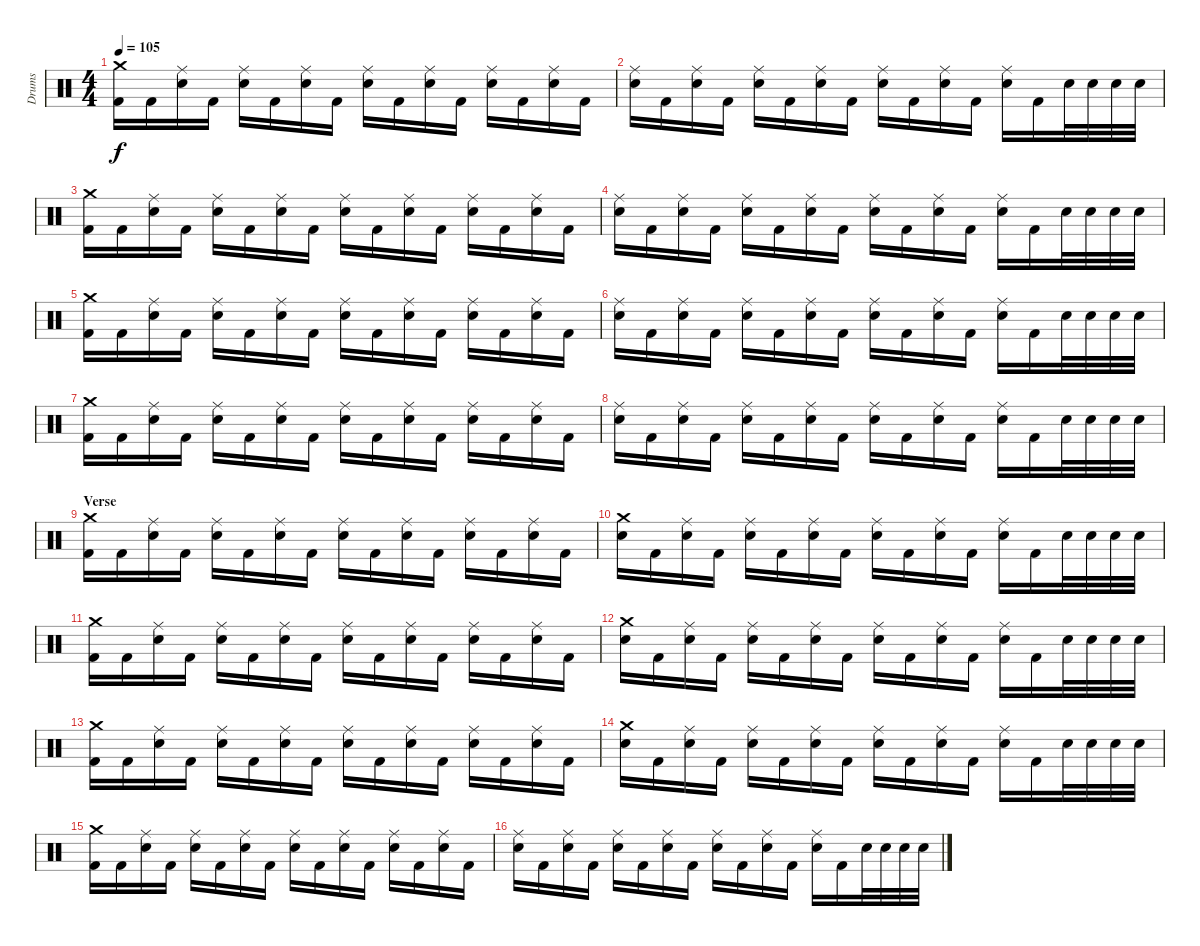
\track ("Drums" "Drums") {instrument percussion}
\staff {score}
\articulation defaults
\ts (4 4)
\tempo 105
\clef neutral
\ks c
("Crash medium (hit)" "Kick (hit) 2").16{dy f} "Kick (hit) 2".16 ("Ride (middle)" "Electric Snare (hit)").16 "Kick (hit) 2".16 ("Ride (middle)" "Electric Snare (hit)").16 "Kick (hit) 2".16 ("Ride (middle)" "Electric Snare (hit)").16 "Kick (hit) 2".16 ("Ride (middle)" "Electric Snare (hit)").16 "Kick (hit) 2".16 ("Ride (middle)" "Electric Snare (hit)").16 "Kick (hit) 2".16 ("Ride (middle)" "Electric Snare (hit)").16 "Kick (hit) 2".16 ("Ride (middle)" "Electric Snare (hit)").16 "Kick (hit) 2".16 |
("Ride (middle)" "Electric Snare (hit)").16 "Kick (hit) 2".16 ("Ride (middle)" "Electric Snare (hit)").16 "Kick (hit) 2".16 ("Ride (middle)" "Electric Snare (hit)").16 "Kick (hit) 2".16 ("Ride (middle)" "Electric Snare (hit)").16 "Kick (hit) 2".16 ("Ride (middle)" "Electric Snare (hit)").16 "Kick (hit) 2".16 ("Ride (middle)" "Electric Snare (hit)").16 "Kick (hit) 2".16 ("Ride (middle)" "Electric Snare (hit)").16 "Kick (hit) 2".16 "Electric Snare (hit)".32 "Electric Snare (hit)".32 "Electric Snare (hit)".32 "Electric Snare (hit)".32 |
("Crash medium (hit)" "Kick (hit) 2").16 "Kick (hit) 2".16 ("Ride (middle)" "Electric Snare (hit)").16 "Kick (hit) 2".16 ("Ride (middle)" "Electric Snare (hit)").16 "Kick (hit) 2".16 ("Ride (middle)" "Electric Snare (hit)").16 "Kick (hit) 2".16 ("Ride (middle)" "Electric Snare (hit)").16 "Kick (hit) 2".16 ("Ride (middle)" "Electric Snare (hit)").16 "Kick (hit) 2".16 ("Ride (middle)" "Electric Snare (hit)").16 "Kick (hit) 2".16 ("Ride (middle)" "Electric Snare (hit)").16 "Kick (hit) 2".16 |
("Ride (middle)" "Electric Snare (hit)").16 "Kick (hit) 2".16 ("Ride (middle)" "Electric Snare (hit)").16 "Kick (hit) 2".16 ("Ride (middle)" "Electric Snare (hit)").16 "Kick (hit) 2".16 ("Ride (middle)" "Electric Snare (hit)").16 "Kick (hit) 2".16 ("Ride (middle)" "Electric Snare (hit)").16 "Kick (hit) 2".16 ("Ride (middle)" "Electric Snare (hit)").16 "Kick (hit) 2".16 ("Ride (middle)" "Electric Snare (hit)").16 "Kick (hit) 2".16 "Electric Snare (hit)".32 "Electric Snare (hit)".32 "Electric Snare (hit)".32 "Electric Snare (hit)".32 |
("Crash medium (hit)" "Kick (hit) 2").16 "Kick (hit) 2".16 ("Ride (middle)" "Electric Snare (hit)").16 "Kick (hit) 2".16 ("Ride (middle)" "Electric Snare (hit)").16 "Kick (hit) 2".16 ("Ride (middle)" "Electric Snare (hit)").16 "Kick (hit) 2".16 ("Ride (middle)" "Electric Snare (hit)").16 "Kick (hit) 2".16 ("Ride (middle)" "Electric Snare (hit)").16 "Kick (hit) 2".16 ("Ride (middle)" "Electric Snare (hit)").16 "Kick (hit) 2".16 ("Ride (middle)" "Electric Snare (hit)").16 "Kick (hit) 2".16 |
("Ride (middle)" "Electric Snare (hit)").16 "Kick (hit) 2".16 ("Ride (middle)" "Electric Snare (hit)").16 "Kick (hit) 2".16 ("Ride (middle)" "Electric Snare (hit)").16 "Kick (hit) 2".16 ("Ride (middle)" "Electric Snare (hit)").16 "Kick (hit) 2".16 ("Ride (middle)" "Electric Snare (hit)").16 "Kick (hit) 2".16 ("Ride (middle)" "Electric Snare (hit)").16 "Kick (hit) 2".16 ("Ride (middle)" "Electric Snare (hit)").16 "Kick (hit) 2".16 "Electric Snare (hit)".32 "Electric Snare (hit)".32 "Electric Snare (hit)".32 "Electric Snare (hit)".32 |
("Crash medium (hit)" "Kick (hit) 2").16 "Kick (hit) 2".16 ("Ride (middle)" "Electric Snare (hit)").16 "Kick (hit) 2".16 ("Ride (middle)" "Electric Snare (hit)").16 "Kick (hit) 2".16 ("Ride (middle)" "Electric Snare (hit)").16 "Kick (hit) 2".16 ("Ride (middle)" "Electric Snare (hit)").16 "Kick (hit) 2".16 ("Ride (middle)" "Electric Snare (hit)").16 "Kick (hit) 2".16 ("Ride (middle)" "Electric Snare (hit)").16 "Kick (hit) 2".16 ("Ride (middle)" "Electric Snare (hit)").16 "Kick (hit) 2".16 |
("Ride (middle)" "Electric Snare (hit)").16 "Kick (hit) 2".16 ("Ride (middle)" "Electric Snare (hit)").16 "Kick (hit) 2".16 ("Ride (middle)" "Electric Snare (hit)").16 "Kick (hit) 2".16 ("Ride (middle)" "Electric Snare (hit)").16 "Kick (hit) 2".16 ("Ride (middle)" "Electric Snare (hit)").16 "Kick (hit) 2".16 ("Ride (middle)" "Electric Snare (hit)").16 "Kick (hit) 2".16 ("Ride (middle)" "Electric Snare (hit)").16 "Kick (hit) 2".16 "Electric Snare (hit)".32 "Electric Snare (hit)".32 "Electric Snare (hit)".32 "Electric Snare (hit)".32 |
\section ("" "Verse")
("Crash medium (hit)" "Kick (hit) 2").16 "Kick (hit) 2".16 ("Ride (middle)" "Electric Snare (hit)").16 "Kick (hit) 2".16 ("Ride (middle)" "Electric Snare (hit)").16 "Kick (hit) 2".16 ("Ride (middle)" "Electric Snare (hit)").16 "Kick (hit) 2".16 ("Ride (middle)" "Electric Snare (hit)").16 "Kick (hit) 2".16 ("Ride (middle)" "Electric Snare (hit)").16 "Kick (hit) 2".16 ("Ride (middle)" "Electric Snare (hit)").16 "Kick (hit) 2".16 ("Ride (middle)" "Electric Snare (hit)").16 "Kick (hit) 2".16 |
("Crash medium (hit)" "Electric Snare (hit)").16 "Kick (hit) 2".16 ("Ride (middle)" "Electric Snare (hit)").16 "Kick (hit) 2".16 ("Ride (middle)" "Electric Snare (hit)").16 "Kick (hit) 2".16 ("Ride (middle)" "Electric Snare (hit)").16 "Kick (hit) 2".16 ("Ride (middle)" "Electric Snare (hit)").16 "Kick (hit) 2".16 ("Ride (middle)" "Electric Snare (hit)").16 "Kick (hit) 2".16 ("Ride (middle)" "Electric Snare (hit)").16 "Kick (hit) 2".16 "Electric Snare (hit)".32 "Electric Snare (hit)".32 "Electric Snare (hit)".32 "Electric Snare (hit)".32 |
("Crash medium (hit)" "Kick (hit) 2").16 "Kick (hit) 2".16 ("Ride (middle)" "Electric Snare (hit)").16 "Kick (hit) 2".16 ("Ride (middle)" "Electric Snare (hit)").16 "Kick (hit) 2".16 ("Ride (middle)" "Electric Snare (hit)").16 "Kick (hit) 2".16 ("Ride (middle)" "Electric Snare (hit)").16 "Kick (hit) 2".16 ("Ride (middle)" "Electric Snare (hit)").16 "Kick (hit) 2".16 ("Ride (middle)" "Electric Snare (hit)").16 "Kick (hit) 2".16 ("Ride (middle)" "Electric Snare (hit)").16 "Kick (hit) 2".16 |
("Crash medium (hit)" "Electric Snare (hit)").16 "Kick (hit) 2".16 ("Ride (middle)" "Electric Snare (hit)").16 "Kick (hit) 2".16 ("Ride (middle)" "Electric Snare (hit)").16 "Kick (hit) 2".16 ("Ride (middle)" "Electric Snare (hit)").16 "Kick (hit) 2".16 ("Ride (middle)" "Electric Snare (hit)").16 "Kick (hit) 2".16 ("Ride (middle)" "Electric Snare (hit)").16 "Kick (hit) 2".16 ("Ride (middle)" "Electric Snare (hit)").16 "Kick (hit) 2".16 "Electric Snare (hit)".32 "Electric Snare (hit)".32 "Electric Snare (hit)".32 "Electric Snare (hit)".32 |
("Crash medium (hit)" "Kick (hit) 2").16 "Kick (hit) 2".16 ("Ride (middle)" "Electric Snare (hit)").16 "Kick (hit) 2".16 ("Ride (middle)" "Electric Snare (hit)").16 "Kick (hit) 2".16 ("Ride (middle)" "Electric Snare (hit)").16 "Kick (hit) 2".16 ("Ride (middle)" "Electric Snare (hit)").16 "Kick (hit) 2".16 ("Ride (middle)" "Electric Snare (hit)").16 "Kick (hit) 2".16 ("Ride (middle)" "Electric Snare (hit)").16 "Kick (hit) 2".16 ("Ride (middle)" "Electric Snare (hit)").16 "Kick (hit) 2".16 |
("Crash medium (hit)" "Electric Snare (hit)").16 "Kick (hit) 2".16 ("Ride (middle)" "Electric Snare (hit)").16 "Kick (hit) 2".16 ("Ride (middle)" "Electric Snare (hit)").16 "Kick (hit) 2".16 ("Ride (middle)" "Electric Snare (hit)").16 "Kick (hit) 2".16 ("Ride (middle)" "Electric Snare (hit)").16 "Kick (hit) 2".16 ("Ride (middle)" "Electric Snare (hit)").16 "Kick (hit) 2".16 ("Ride (middle)" "Electric Snare (hit)").16 "Kick (hit) 2".16 "Electric Snare (hit)".32 "Electric Snare (hit)".32 "Electric Snare (hit)".32 "Electric Snare (hit)".32 |
("Crash medium (hit)" "Kick (hit) 2").16 "Kick (hit) 2".16 ("Ride (middle)" "Electric Snare (hit)").16 "Kick (hit) 2".16 ("Ride (middle)" "Electric Snare (hit)").16 "Kick (hit) 2".16 ("Ride (middle)" "Electric Snare (hit)").16 "Kick (hit) 2".16 ("Ride (middle)" "Electric Snare (hit)").16 "Kick (hit) 2".16 ("Ride (middle)" "Electric Snare (hit)").16 "Kick (hit) 2".16 ("Ride (middle)" "Electric Snare (hit)").16 "Kick (hit) 2".16 ("Ride (middle)" "Electric Snare (hit)").16 "Kick (hit) 2".16 |
("Ride (middle)" "Electric Snare (hit)").16 "Kick (hit) 2".16 ("Ride (middle)" "Electric Snare (hit)").16 "Kick (hit) 2".16 ("Ride (middle)" "Electric Snare (hit)").16 "Kick (hit) 2".16 ("Ride (middle)" "Electric Snare (hit)").16 "Kick (hit) 2".16 ("Ride (middle)" "Electric Snare (hit)").16 "Kick (hit) 2".16 ("Ride (middle)" "Electric Snare (hit)").16 "Kick (hit) 2".16 ("Ride (middle)" "Electric Snare (hit)").16 "Kick (hit) 2".16 "Electric Snare (hit)".32 "Electric Snare (hit)".32 "Electric Snare (hit)".32 "Electric Snare (hit)".32
